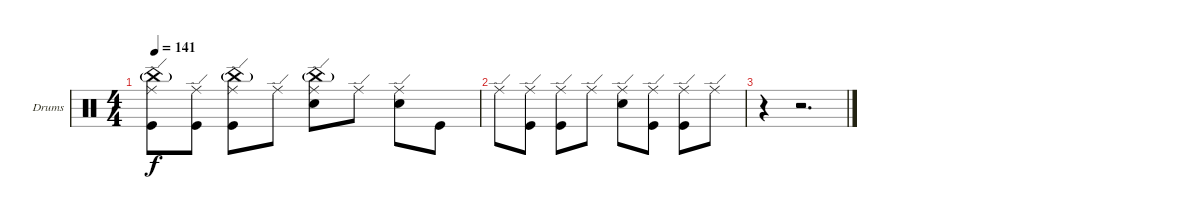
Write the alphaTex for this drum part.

\bracketExtendMode groupsimilarinstruments
\firstSystemTrackNameOrientation horizontal
\otherSystemsTrackNameOrientation horizontal
\track ("Drumkit" "Drums") {instrument percussion}
\staff {score}
\articulation defaults
\ts (4 4)
\tempo 141
\clef neutral
\ks c
("Kick (hit)" "Ride (edge)" "China (hit)"{g}).8{dy f} ("Kick (hit)" "Ride (edge)").8 ("Kick (hit)" "Ride (edge)" "China (hit)"{g}).8 "Ride (edge)".8 ("Snare (hit) 2" "Ride (edge)" "China (hit)"{g}).8 "Ride (edge)".8 ("Ride (edge)" "Snare (hit) 2").8 "Kick (hit)".8 |
"Ride (edge)".8 ("Kick (hit)" "Ride (edge)").8 ("Ride (edge)" "Kick (hit)").8 "Ride (edge)".8 ("Ride (edge)" "Snare (hit) 2").8 ("Kick (hit)" "Ride (edge)").8 ("Ride (edge)" "Kick (hit)").8 "Ride (edge)".8 |
r.4 r.2{d}
